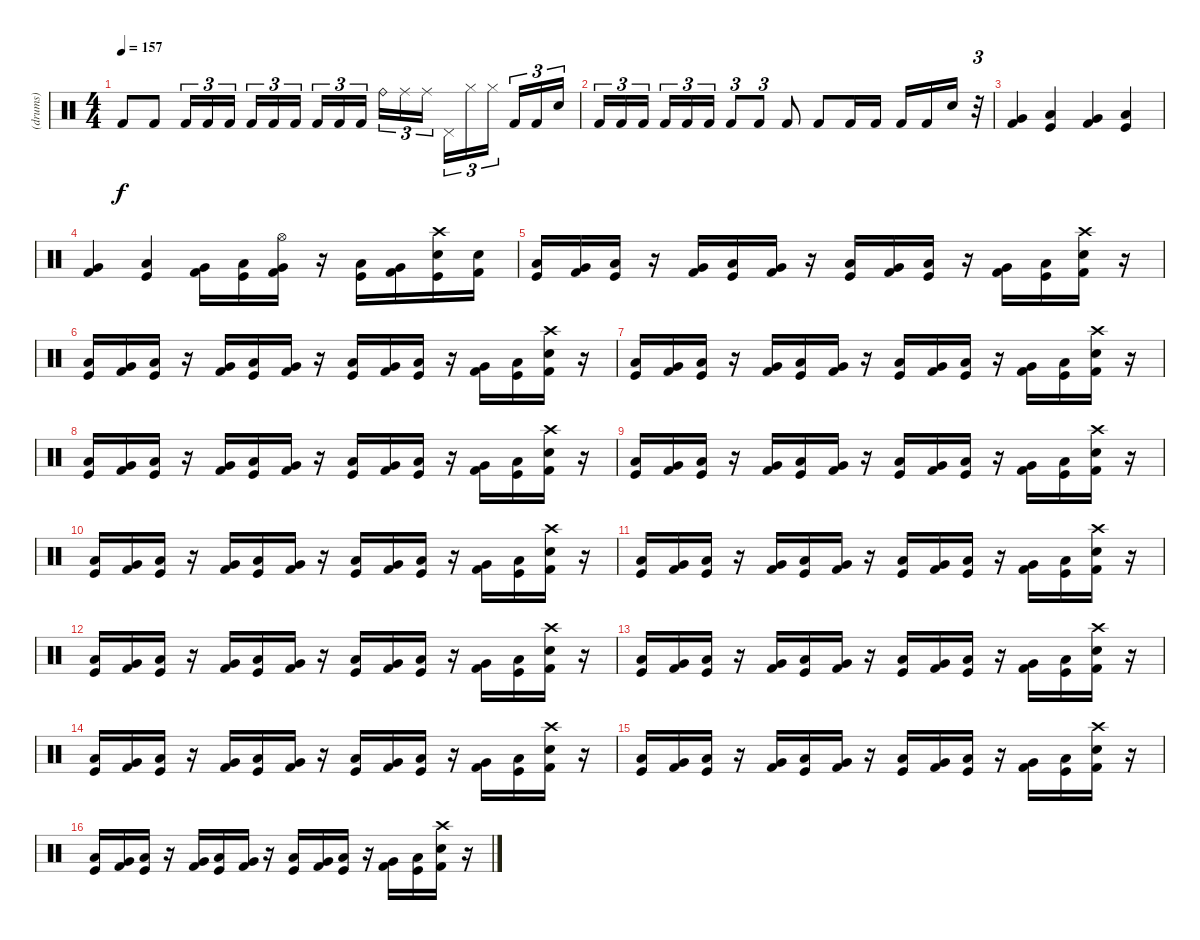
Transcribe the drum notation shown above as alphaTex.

\track ("(drums)" "(drums)") {instrument percussion}
\staff {score}
\articulation defaults
\ts (4 4)
\tempo 157
\clef neutral
\ks c "Kick (hit) 2".8{dy f} "Kick (hit) 2".8 "Kick (hit) 2".16{tu (3 2)} "Kick (hit) 2".16{tu (3 2)} "Kick (hit) 2".16{tu (3 2)} "Kick (hit) 2".16{tu (3 2)} "Kick (hit) 2".16{tu (3 2)} "Kick (hit) 2".16{tu (3 2)} "Kick (hit) 2".16{tu (3 2)} "Kick (hit) 2".16{tu (3 2)} "Kick (hit) 2".16{tu (3 2)} "Ride (bell)".16{tu (3 2)} "Ride (middle)".16{tu (3 2)} "Ride (middle)".16{tu (3 2)} "Pedal Hi-Hat (hit)".16{tu (3 2)} "Hi-Hat (closed)".16{tu (3 2)} "Hi-Hat (closed)".16{tu (3 2)} "Kick (hit) 2".16{tu (3 2)} "Kick (hit) 2".16{tu (3 2)} "Snare (hit) 2".16{tu (3 2)}
|
"Kick (hit) 2".16{tu (3 2)} "Kick (hit) 2".16{tu (3 2)} "Kick (hit) 2".16{tu (3 2)} "Kick (hit) 2".16{tu (3 2)} "Kick (hit) 2".16{tu (3 2)} "Kick (hit) 2".16{tu (3 2)} "Kick (hit) 2".8{tu (3 2)} "Kick (hit) 2".8{tu (3 2)} "Kick (hit) 2".8 "Kick (hit) 2".8 "Kick (hit) 2".16 "Kick (hit) 2".16 "Kick (hit) 2".16 "Kick (hit) 2".16 "Electric Snare (hit)".16 r.32{tu (3 2)} |
("Kick (hit) 2" "Very Low Tom (hit)").4 ("Kick (hit)" "Low Tom (hit)").4 ("Kick (hit) 2" "Very Low Tom (hit)").4 ("Kick (hit)" "Low Tom (hit)").4 |
("Kick (hit) 2" "Very Low Tom (hit)").4 ("Kick (hit)" "Low Tom (hit)").4 ("Kick (hit) 2" "Very Low Tom (hit)").16 ("Kick (hit)" "Low Tom (hit)").16 ("Kick (hit) 2" "Very Low Tom (hit)" "Hi-Hat (open)").16 r.16 ("Kick (hit)" "Low Tom (hit)").16 ("Kick (hit) 2" "Very Low Tom (hit)").16 ("Kick (hit)" "Snare (hit) 2" "Crash high (hit)").16 ("Kick (hit) 2" "Snare (hit) 2").16 |
("Kick (hit)" "Low Tom (hit)").16 ("Kick (hit) 2" "Very Low Tom (hit)").16 ("Kick (hit)" "Low Tom (hit)").16 r.16 ("Kick (hit) 2" "Very Low Tom (hit)").16 ("Kick (hit)" "Low Tom (hit)").16 ("Kick (hit) 2" "Very Low Tom (hit)").16 r.16 ("Kick (hit)" "Low Tom (hit)").16 ("Kick (hit) 2" "Very Low Tom (hit)").16 ("Kick (hit)" "Low Tom (hit)").16 r.16 ("Kick (hit) 2" "Very Low Tom (hit)").16 ("Kick (hit)" "Low Tom (hit)").16 ("Kick (hit) 2" "Snare (hit) 2" "Crash high (hit)").16 r.16 |
("Kick (hit)" "Low Tom (hit)").16 ("Kick (hit) 2" "Very Low Tom (hit)").16 ("Kick (hit)" "Low Tom (hit)").16 r.16 ("Kick (hit) 2" "Very Low Tom (hit)").16 ("Kick (hit)" "Low Tom (hit)").16 ("Kick (hit) 2" "Very Low Tom (hit)").16 r.16 ("Kick (hit)" "Low Tom (hit)").16 ("Kick (hit) 2" "Very Low Tom (hit)").16 ("Kick (hit)" "Low Tom (hit)").16 r.16 ("Kick (hit) 2" "Very Low Tom (hit)").16 ("Kick (hit)" "Low Tom (hit)").16 ("Kick (hit) 2" "Snare (hit) 2" "Crash high (hit)").16 r.16 |
("Kick (hit)" "Low Tom (hit)").16 ("Kick (hit) 2" "Very Low Tom (hit)").16 ("Kick (hit)" "Low Tom (hit)").16 r.16 ("Kick (hit) 2" "Very Low Tom (hit)").16 ("Kick (hit)" "Low Tom (hit)").16 ("Kick (hit) 2" "Very Low Tom (hit)").16 r.16 ("Kick (hit)" "Low Tom (hit)").16 ("Kick (hit) 2" "Very Low Tom (hit)").16 ("Kick (hit)" "Low Tom (hit)").16 r.16 ("Kick (hit) 2" "Very Low Tom (hit)").16 ("Kick (hit)" "Low Tom (hit)").16 ("Kick (hit) 2" "Snare (hit) 2" "Crash high (hit)").16 r.16 |
("Kick (hit)" "Low Tom (hit)").16 ("Kick (hit) 2" "Very Low Tom (hit)").16 ("Kick (hit)" "Low Tom (hit)").16 r.16 ("Kick (hit) 2" "Very Low Tom (hit)").16 ("Kick (hit)" "Low Tom (hit)").16 ("Kick (hit) 2" "Very Low Tom (hit)").16 r.16 ("Kick (hit)" "Low Tom (hit)").16 ("Kick (hit) 2" "Very Low Tom (hit)").16 ("Kick (hit)" "Low Tom (hit)").16 r.16 ("Kick (hit) 2" "Very Low Tom (hit)").16 ("Kick (hit)" "Low Tom (hit)").16 ("Kick (hit) 2" "Snare (hit) 2" "Crash high (hit)").16 r.16 |
("Kick (hit)" "Low Tom (hit)").16 ("Kick (hit) 2" "Very Low Tom (hit)").16 ("Kick (hit)" "Low Tom (hit)").16 r.16 ("Kick (hit) 2" "Very Low Tom (hit)").16 ("Kick (hit)" "Low Tom (hit)").16 ("Kick (hit) 2" "Very Low Tom (hit)").16 r.16 ("Kick (hit)" "Low Tom (hit)").16 ("Kick (hit) 2" "Very Low Tom (hit)").16 ("Kick (hit)" "Low Tom (hit)").16 r.16 ("Kick (hit) 2" "Very Low Tom (hit)").16 ("Kick (hit)" "Low Tom (hit)").16 ("Kick (hit) 2" "Snare (hit) 2" "Crash high (hit)").16 r.16 |
("Kick (hit)" "Low Tom (hit)").16 ("Kick (hit) 2" "Very Low Tom (hit)").16 ("Kick (hit)" "Low Tom (hit)").16 r.16 ("Kick (hit) 2" "Very Low Tom (hit)").16 ("Kick (hit)" "Low Tom (hit)").16 ("Kick (hit) 2" "Very Low Tom (hit)").16 r.16 ("Kick (hit)" "Low Tom (hit)").16 ("Kick (hit) 2" "Very Low Tom (hit)").16 ("Kick (hit)" "Low Tom (hit)").16 r.16 ("Kick (hit) 2" "Very Low Tom (hit)").16 ("Kick (hit)" "Low Tom (hit)").16 ("Kick (hit) 2" "Snare (hit) 2" "Crash high (hit)").16 r.16 |
("Kick (hit)" "Low Tom (hit)").16 ("Kick (hit) 2" "Very Low Tom (hit)").16 ("Kick (hit)" "Low Tom (hit)").16 r.16 ("Kick (hit) 2" "Very Low Tom (hit)").16 ("Kick (hit)" "Low Tom (hit)").16 ("Kick (hit) 2" "Very Low Tom (hit)").16 r.16 ("Kick (hit)" "Low Tom (hit)").16 ("Kick (hit) 2" "Very Low Tom (hit)").16 ("Kick (hit)" "Low Tom (hit)").16 r.16 ("Kick (hit) 2" "Very Low Tom (hit)").16 ("Kick (hit)" "Low Tom (hit)").16 ("Kick (hit) 2" "Snare (hit) 2" "Crash high (hit)").16 r.16 |
("Kick (hit)" "Low Tom (hit)").16 ("Kick (hit) 2" "Very Low Tom (hit)").16 ("Kick (hit)" "Low Tom (hit)").16 r.16 ("Kick (hit) 2" "Very Low Tom (hit)").16 ("Kick (hit)" "Low Tom (hit)").16 ("Kick (hit) 2" "Very Low Tom (hit)").16 r.16 ("Kick (hit)" "Low Tom (hit)").16 ("Kick (hit) 2" "Very Low Tom (hit)").16 ("Kick (hit)" "Low Tom (hit)").16 r.16 ("Kick (hit) 2" "Very Low Tom (hit)").16 ("Kick (hit)" "Low Tom (hit)").16 ("Kick (hit) 2" "Snare (hit) 2" "Crash high (hit)").16 r.16 |
("Kick (hit)" "Low Tom (hit)").16 ("Kick (hit) 2" "Very Low Tom (hit)").16 ("Kick (hit)" "Low Tom (hit)").16 r.16 ("Kick (hit) 2" "Very Low Tom (hit)").16 ("Kick (hit)" "Low Tom (hit)").16 ("Kick (hit) 2" "Very Low Tom (hit)").16 r.16 ("Kick (hit)" "Low Tom (hit)").16 ("Kick (hit) 2" "Very Low Tom (hit)").16 ("Kick (hit)" "Low Tom (hit)").16 r.16 ("Kick (hit) 2" "Very Low Tom (hit)").16 ("Kick (hit)" "Low Tom (hit)").16 ("Kick (hit) 2" "Snare (hit) 2" "Crash high (hit)").16 r.16 |
("Kick (hit)" "Low Tom (hit)").16 ("Kick (hit) 2" "Very Low Tom (hit)").16 ("Kick (hit)" "Low Tom (hit)").16 r.16 ("Kick (hit) 2" "Very Low Tom (hit)").16 ("Kick (hit)" "Low Tom (hit)").16 ("Kick (hit) 2" "Very Low Tom (hit)").16 r.16 ("Kick (hit)" "Low Tom (hit)").16 ("Kick (hit) 2" "Very Low Tom (hit)").16 ("Kick (hit)" "Low Tom (hit)").16 r.16 ("Kick (hit) 2" "Very Low Tom (hit)").16 ("Kick (hit)" "Low Tom (hit)").16 ("Kick (hit) 2" "Snare (hit) 2" "Crash high (hit)").16 r.16 |
("Kick (hit)" "Low Tom (hit)").16 ("Kick (hit) 2" "Very Low Tom (hit)").16 ("Kick (hit)" "Low Tom (hit)").16 r.16 ("Kick (hit) 2" "Very Low Tom (hit)").16 ("Kick (hit)" "Low Tom (hit)").16 ("Kick (hit) 2" "Very Low Tom (hit)").16 r.16 ("Kick (hit)" "Low Tom (hit)").16 ("Kick (hit) 2" "Very Low Tom (hit)").16 ("Kick (hit)" "Low Tom (hit)").16 r.16 ("Kick (hit) 2" "Very Low Tom (hit)").16 ("Kick (hit)" "Low Tom (hit)").16 ("Kick (hit) 2" "Snare (hit) 2" "Crash high (hit)").16 r.16 |
("Kick (hit)" "Low Tom (hit)").16 ("Kick (hit) 2" "Very Low Tom (hit)").16 ("Kick (hit)" "Low Tom (hit)").16 r.16 ("Kick (hit) 2" "Very Low Tom (hit)").16 ("Kick (hit)" "Low Tom (hit)").16 ("Kick (hit) 2" "Very Low Tom (hit)").16 r.16 ("Kick (hit)" "Low Tom (hit)").16 ("Kick (hit) 2" "Very Low Tom (hit)").16 ("Kick (hit)" "Low Tom (hit)").16 r.16 ("Kick (hit) 2" "Very Low Tom (hit)").16 ("Kick (hit)" "Low Tom (hit)").16 ("Kick (hit) 2" "Snare (hit) 2" "Crash high (hit)").16 r.16
